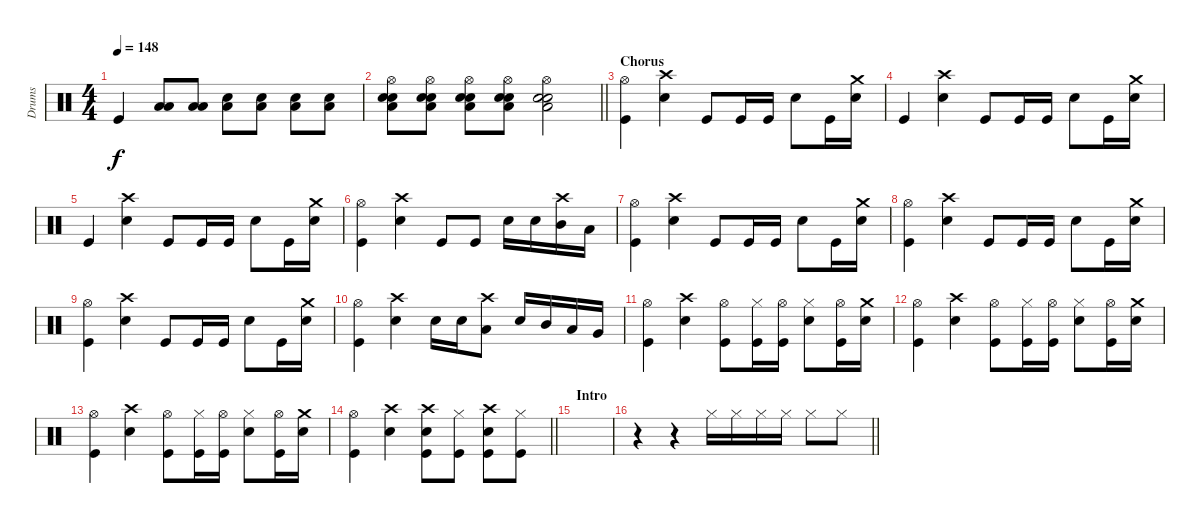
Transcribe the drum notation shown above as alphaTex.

\track ("Drums" "Drums") {instrument percussion}
\staff {score}
\articulation defaults
\ts (4 4)
\tempo 148
\clef neutral
\ks c "Kick (hit)".4{dy f}
("Low Tom (hit)" "Low Floor Tom (hit)").8 ("Low Tom (hit)" "Low Floor Tom (hit)").8 ("Electric Snare (hit)" "Low Floor Tom (hit)").8 ("Electric Snare (hit)" "Low Floor Tom (hit)").8 ("Electric Snare (hit)" "Low Floor Tom (hit)").8 ("Electric Snare (hit)" "Low Floor Tom (hit)").8 |
\barLineRight lightlight
("Hi-Hat (open)" "Snare (hit) 2" "Electric Snare (hit)" "Low Floor Tom (hit)").8 ("Hi-Hat (open)" "Snare (hit) 2" "Electric Snare (hit)" "Low Floor Tom (hit)").8 ("Hi-Hat (open)" "Snare (hit) 2" "Electric Snare (hit)" "Low Floor Tom (hit)").8 ("Hi-Hat (open)" "Snare (hit) 2" "Electric Snare (hit)" "Low Floor Tom (hit)").8 ("Hi-Hat (open)" "Snare (hit) 2" "Electric Snare (hit)" "Low Floor Tom (hit)").2 |
\section ("" "Chorus")
("Hi-Hat (open)" "Kick (hit)").4 ("Crash high (hit)" "Electric Snare (hit)").4 "Kick (hit)".8 "Kick (hit)".16 "Kick (hit)".16 "Electric Snare (hit)".8 "Kick (hit)".16 ("Crash medium (hit)" "Electric Snare (hit)").16 |
"Kick (hit)".4 ("Crash high (hit)" "Electric Snare (hit)").4 "Kick (hit)".8 "Kick (hit)".16 "Kick (hit)".16 "Electric Snare (hit)".8 "Kick (hit)".16 ("Crash medium (hit)" "Electric Snare (hit)").16 |
"Kick (hit)".4 ("Crash high (hit)" "Electric Snare (hit)").4 "Kick (hit)".8 "Kick (hit)".16 "Kick (hit)".16 "Electric Snare (hit)".8 "Kick (hit)".16 ("Crash medium (hit)" "Electric Snare (hit)").16 |
("Hi-Hat (open)" "Kick (hit)").4 ("Crash high (hit)" "Electric Snare (hit)").4 "Kick (hit)".8 "Kick (hit)".8 "Electric Snare (hit)".16 "Electric Snare (hit)".16 ("Crash high (hit)" "Mid Tom (hit)").16 "Low Tom (hit)".16 |
("Hi-Hat (open)" "Kick (hit)").4 ("Crash high (hit)" "Electric Snare (hit)").4 "Kick (hit)".8 "Kick (hit)".16 "Kick (hit)".16 "Electric Snare (hit)".8 "Kick (hit)".16 ("Crash medium (hit)" "Electric Snare (hit)").16 |
("Hi-Hat (open)" "Kick (hit)").4 ("Crash high (hit)" "Electric Snare (hit)").4 "Kick (hit)".8 "Kick (hit)".16 "Kick (hit)".16 "Electric Snare (hit)".8 "Kick (hit)".16 ("Crash medium (hit)" "Electric Snare (hit)").16 |
("Hi-Hat (open)" "Kick (hit)").4 ("Crash high (hit)" "Electric Snare (hit)").4 "Kick (hit)".8 "Kick (hit)".16 "Kick (hit)".16 "Electric Snare (hit)".8 "Kick (hit)".16 ("Crash medium (hit)" "Electric Snare (hit)").16 |
("Hi-Hat (open)" "Kick (hit)").4 ("Crash high (hit)" "Electric Snare (hit)").4 "Electric Snare (hit)".16 "Electric Snare (hit)".16 ("Crash high (hit)" "Low Floor Tom (hit)").8 "Electric Snare (hit)".16 "Mid Tom (hit)".16 "Low Tom (hit)".16 "Very Low Tom (hit)".16 |
("Hi-Hat (open)" "Kick (hit)").4 ("Crash high (hit)" "Electric Snare (hit)").4 ("Hi-Hat (open)" "Kick (hit)").8 ("Hi-Hat (closed)" "Kick (hit)").16 ("Hi-Hat (open)" "Kick (hit)").16 ("Hi-Hat (closed)" "Electric Snare (hit)").8 ("Hi-Hat (open)" "Kick (hit)").16 ("Crash medium (hit)" "Electric Snare (hit)").16 |
("Hi-Hat (open)" "Kick (hit)").4 ("Crash high (hit)" "Electric Snare (hit)").4 ("Hi-Hat (open)" "Kick (hit)").8 ("Hi-Hat (closed)" "Kick (hit)").16 ("Hi-Hat (open)" "Kick (hit)").16 ("Hi-Hat (closed)" "Electric Snare (hit)").8 ("Hi-Hat (open)" "Kick (hit)").16 ("Crash medium (hit)" "Electric Snare (hit)").16 |
("Hi-Hat (open)" "Kick (hit)").4 ("Crash high (hit)" "Electric Snare (hit)").4 ("Hi-Hat (open)" "Kick (hit)").8 ("Hi-Hat (closed)" "Kick (hit)").16 ("Hi-Hat (open)" "Kick (hit)").16 ("Hi-Hat (closed)" "Electric Snare (hit)").8 ("Hi-Hat (open)" "Kick (hit)").16 ("Crash medium (hit)" "Electric Snare (hit)").16 |
\barLineRight lightlight
("Hi-Hat (open)" "Kick (hit)").4 ("Crash high (hit)" "Electric Snare (hit)").4 ("Crash high (hit)" "Electric Snare (hit)" "Kick (hit)").8 ("Hi-Hat (closed)" "Kick (hit)").8 ("Crash high (hit)" "Electric Snare (hit)" "Kick (hit)").8 ("Hi-Hat (closed)" "Kick (hit)").8 |
\section ("" "Intro")
|
\barLineRight lightlight
r.4 r.4 "Hi-Hat (closed)".16 "Hi-Hat (closed)".16 "Hi-Hat (closed)".16 "Hi-Hat (closed)".16 "Hi-Hat (closed)".8 "Hi-Hat (closed)".8
